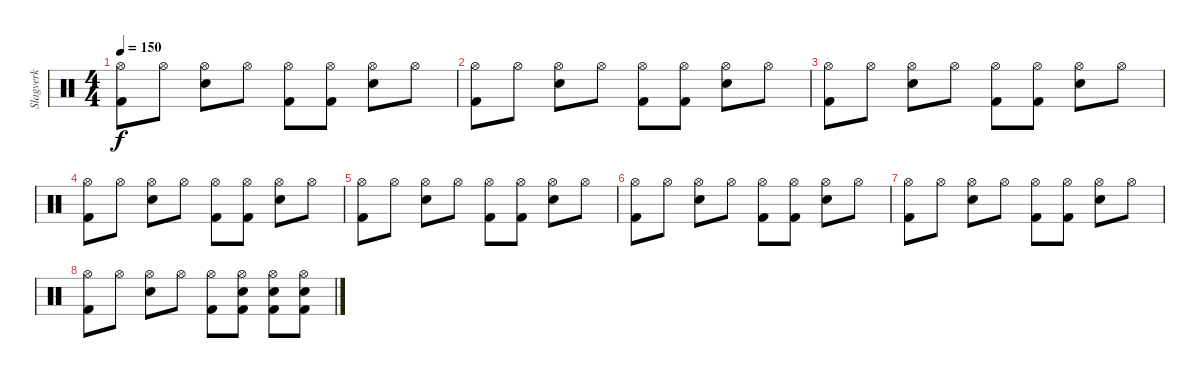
\track ("Slagverk" "Slagverk") {instrument percussion}
\staff {score}
\articulation defaults
\ts (4 4)
\tempo 150
\clef neutral
\ks c
("Hi-Hat (open)" "Kick (hit) 2").8{dy f} "Hi-Hat (open)".8 ("Hi-Hat (open)" "Electric Snare (hit)").8 "Hi-Hat (open)".8 ("Hi-Hat (open)" "Kick (hit) 2").8 ("Hi-Hat (open)" "Kick (hit) 2").8 ("Hi-Hat (open)" "Electric Snare (hit)").8 "Hi-Hat (open)".8 |
("Hi-Hat (open)" "Kick (hit) 2").8 "Hi-Hat (open)".8 ("Hi-Hat (open)" "Electric Snare (hit)").8 "Hi-Hat (open)".8 ("Hi-Hat (open)" "Kick (hit) 2").8 ("Hi-Hat (open)" "Kick (hit) 2").8 ("Hi-Hat (open)" "Electric Snare (hit)").8 "Hi-Hat (open)".8 |
("Hi-Hat (open)" "Kick (hit) 2").8 "Hi-Hat (open)".8 ("Hi-Hat (open)" "Electric Snare (hit)").8 "Hi-Hat (open)".8 ("Hi-Hat (open)" "Kick (hit) 2").8 ("Hi-Hat (open)" "Kick (hit) 2").8 ("Hi-Hat (open)" "Electric Snare (hit)").8 "Hi-Hat (open)".8 |
("Hi-Hat (open)" "Kick (hit) 2").8 "Hi-Hat (open)".8 ("Hi-Hat (open)" "Electric Snare (hit)").8 "Hi-Hat (open)".8 ("Hi-Hat (open)" "Kick (hit) 2").8 ("Hi-Hat (open)" "Kick (hit) 2").8 ("Hi-Hat (open)" "Electric Snare (hit)").8 "Hi-Hat (open)".8 |
("Hi-Hat (open)" "Kick (hit) 2").8 "Hi-Hat (open)".8 ("Hi-Hat (open)" "Electric Snare (hit)").8 "Hi-Hat (open)".8 ("Hi-Hat (open)" "Kick (hit) 2").8 ("Hi-Hat (open)" "Kick (hit) 2").8 ("Hi-Hat (open)" "Electric Snare (hit)").8 "Hi-Hat (open)".8 |
("Hi-Hat (open)" "Kick (hit) 2").8 "Hi-Hat (open)".8 ("Hi-Hat (open)" "Electric Snare (hit)").8 "Hi-Hat (open)".8 ("Hi-Hat (open)" "Kick (hit) 2").8 ("Hi-Hat (open)" "Kick (hit) 2").8 ("Hi-Hat (open)" "Electric Snare (hit)").8 "Hi-Hat (open)".8 |
("Hi-Hat (open)" "Kick (hit) 2").8 "Hi-Hat (open)".8 ("Hi-Hat (open)" "Electric Snare (hit)").8 "Hi-Hat (open)".8 ("Hi-Hat (open)" "Kick (hit) 2").8 ("Hi-Hat (open)" "Kick (hit) 2").8 ("Hi-Hat (open)" "Electric Snare (hit)").8 "Hi-Hat (open)".8 |
("Hi-Hat (open)" "Kick (hit) 2").8 "Hi-Hat (open)".8 ("Hi-Hat (open)" "Electric Snare (hit)").8 "Hi-Hat (open)".8 ("Hi-Hat (open)" "Kick (hit) 2").8 ("Hi-Hat (open)" "Electric Snare (hit)" "Kick (hit) 2").8 ("Hi-Hat (open)" "Electric Snare (hit)" "Kick (hit) 2").8 ("Hi-Hat (open)" "Electric Snare (hit)" "Kick (hit) 2").8
